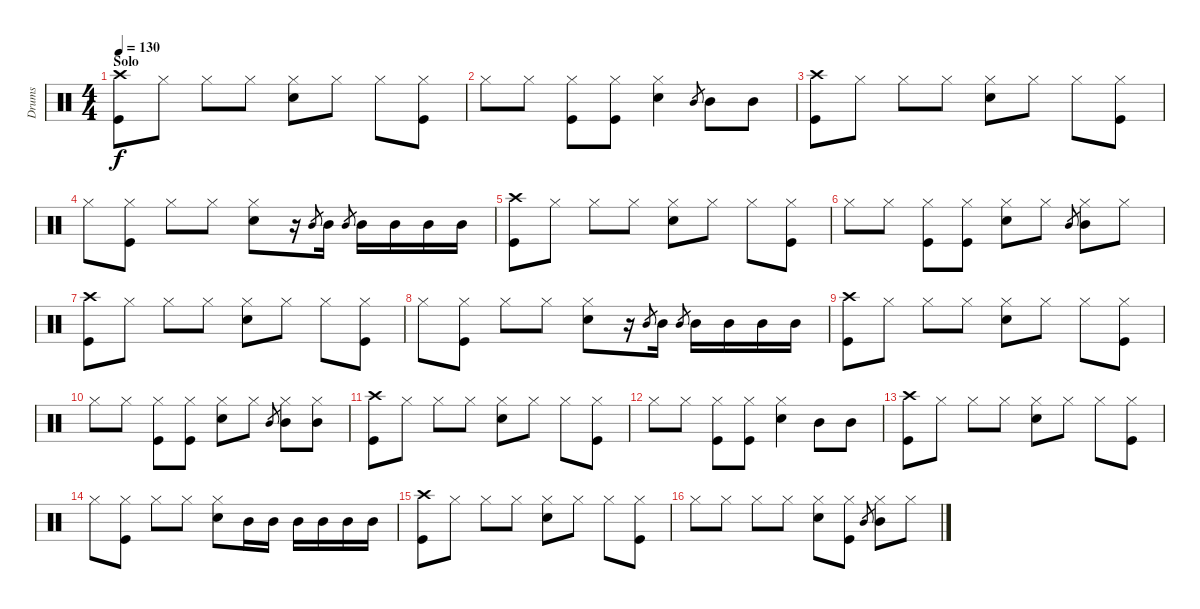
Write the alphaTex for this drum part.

\track ("Drums" "Drums") {instrument percussion}
\staff {score}
\articulation defaults
\ts (4 4)
\section ("" "Solo")
\tempo 130
\clef neutral
\ks c
("Crash high (hit)" "Kick (hit)").8{dy f} "Hi-Hat (closed)".8 "Hi-Hat (closed)".8 "Hi-Hat (closed)".8 ("Hi-Hat (closed)" "Snare (hit) 2").8 "Hi-Hat (closed)".8 "Hi-Hat (closed)".8 ("Hi-Hat (closed)" "Kick (hit)").8 |
"Hi-Hat (closed)".8 "Hi-Hat (closed)".8 ("Hi-Hat (closed)" "Kick (hit)").8 ("Hi-Hat (closed)" "Kick (hit)").8 ("Hi-Hat (closed)" "Snare (hit) 2").4 "Mid Tom (hit)".8{gr} "Mid Tom (hit)".8 "Mid Tom (hit)".8 |
("Crash high (hit)" "Kick (hit)").8 "Hi-Hat (closed)".8 "Hi-Hat (closed)".8 "Hi-Hat (closed)".8 ("Hi-Hat (closed)" "Snare (hit) 2").8 "Hi-Hat (closed)".8 "Hi-Hat (closed)".8 ("Hi-Hat (closed)" "Kick (hit)").8 |
"Hi-Hat (closed)".8 ("Hi-Hat (closed)" "Kick (hit)").8 "Hi-Hat (closed)".8 "Hi-Hat (closed)".8 ("Hi-Hat (closed)" "Snare (hit) 2").8 r.16 "Mid Tom (hit)".8{gr} "Mid Tom (hit)".16 "Mid Tom (hit)".8{gr} "Mid Tom (hit)".16 "Mid Tom (hit)".16 "Mid Tom (hit)".16 "Mid Tom (hit)".16 |
("Crash high (hit)" "Kick (hit)").8 "Hi-Hat (closed)".8 "Hi-Hat (closed)".8 "Hi-Hat (closed)".8 ("Hi-Hat (closed)" "Snare (hit) 2").8 "Hi-Hat (closed)".8 "Hi-Hat (closed)".8 ("Hi-Hat (closed)" "Kick (hit)").8 |
"Hi-Hat (closed)".8 "Hi-Hat (closed)".8 ("Hi-Hat (closed)" "Kick (hit)").8 ("Hi-Hat (closed)" "Kick (hit)").8 ("Hi-Hat (closed)" "Snare (hit) 2").8 "Hi-Hat (closed)".8 "Mid Tom (hit)".8{gr} ("Hi-Hat (closed)" "Mid Tom (hit)").8 "Hi-Hat (closed)".8 |
("Crash high (hit)" "Kick (hit)").8 "Hi-Hat (closed)".8 "Hi-Hat (closed)".8 "Hi-Hat (closed)".8 ("Hi-Hat (closed)" "Snare (hit) 2").8 "Hi-Hat (closed)".8 "Hi-Hat (closed)".8 ("Hi-Hat (closed)" "Kick (hit)").8 |
"Hi-Hat (closed)".8 ("Hi-Hat (closed)" "Kick (hit)").8 "Hi-Hat (closed)".8 "Hi-Hat (closed)".8 ("Hi-Hat (closed)" "Snare (hit) 2").8 r.16 "Mid Tom (hit)".8{gr} "Mid Tom (hit)".16 "Mid Tom (hit)".8{gr} "Mid Tom (hit)".16 "Mid Tom (hit)".16 "Mid Tom (hit)".16 "Mid Tom (hit)".16 |
("Crash high (hit)" "Kick (hit)").8 "Hi-Hat (closed)".8 "Hi-Hat (closed)".8 "Hi-Hat (closed)".8 ("Hi-Hat (closed)" "Snare (hit) 2").8 "Hi-Hat (closed)".8 "Hi-Hat (closed)".8 ("Hi-Hat (closed)" "Kick (hit)").8 |
"Hi-Hat (closed)".8 "Hi-Hat (closed)".8 ("Hi-Hat (closed)" "Kick (hit)").8 ("Hi-Hat (closed)" "Kick (hit)").8 ("Hi-Hat (closed)" "Snare (hit) 2").8 "Hi-Hat (closed)".8 "Mid Tom (hit)".8{gr} ("Hi-Hat (closed)" "Mid Tom (hit)").8 ("Hi-Hat (closed)" "Mid Tom (hit)").8 |
("Crash high (hit)" "Kick (hit)").8 "Hi-Hat (closed)".8 "Hi-Hat (closed)".8 "Hi-Hat (closed)".8 ("Hi-Hat (closed)" "Snare (hit) 2").8 "Hi-Hat (closed)".8 "Hi-Hat (closed)".8 ("Hi-Hat (closed)" "Kick (hit)").8 |
"Hi-Hat (closed)".8 "Hi-Hat (closed)".8 ("Hi-Hat (closed)" "Kick (hit)").8 ("Hi-Hat (closed)" "Kick (hit)").8 ("Hi-Hat (closed)" "Snare (hit) 2").4 "Mid Tom (hit)".8 "Mid Tom (hit)".8 |
("Crash high (hit)" "Kick (hit)").8 "Hi-Hat (closed)".8 "Hi-Hat (closed)".8 "Hi-Hat (closed)".8 ("Hi-Hat (closed)" "Snare (hit) 2").8 "Hi-Hat (closed)".8 "Hi-Hat (closed)".8 ("Hi-Hat (closed)" "Kick (hit)").8 |
"Hi-Hat (closed)".8 ("Hi-Hat (closed)" "Kick (hit)").8 "Hi-Hat (closed)".8 "Hi-Hat (closed)".8 ("Hi-Hat (closed)" "Snare (hit) 2").8 "Mid Tom (hit)".16 "Mid Tom (hit)".16 "Mid Tom (hit)".16 "Mid Tom (hit)".16 "Mid Tom (hit)".16 "Mid Tom (hit)".16 |
("Crash high (hit)" "Kick (hit)").8 "Hi-Hat (closed)".8 "Hi-Hat (closed)".8 "Hi-Hat (closed)".8 ("Hi-Hat (closed)" "Snare (hit) 2").8 "Hi-Hat (closed)".8 "Hi-Hat (closed)".8 ("Hi-Hat (closed)" "Kick (hit)").8 |
"Hi-Hat (closed)".8 "Hi-Hat (closed)".8 "Hi-Hat (closed)".8 "Hi-Hat (closed)".8 ("Hi-Hat (closed)" "Snare (hit) 2").8 ("Hi-Hat (closed)" "Kick (hit)").8 "Mid Tom (hit)".8{gr} ("Hi-Hat (closed)" "Mid Tom (hit)").8 "Hi-Hat (closed)".8
